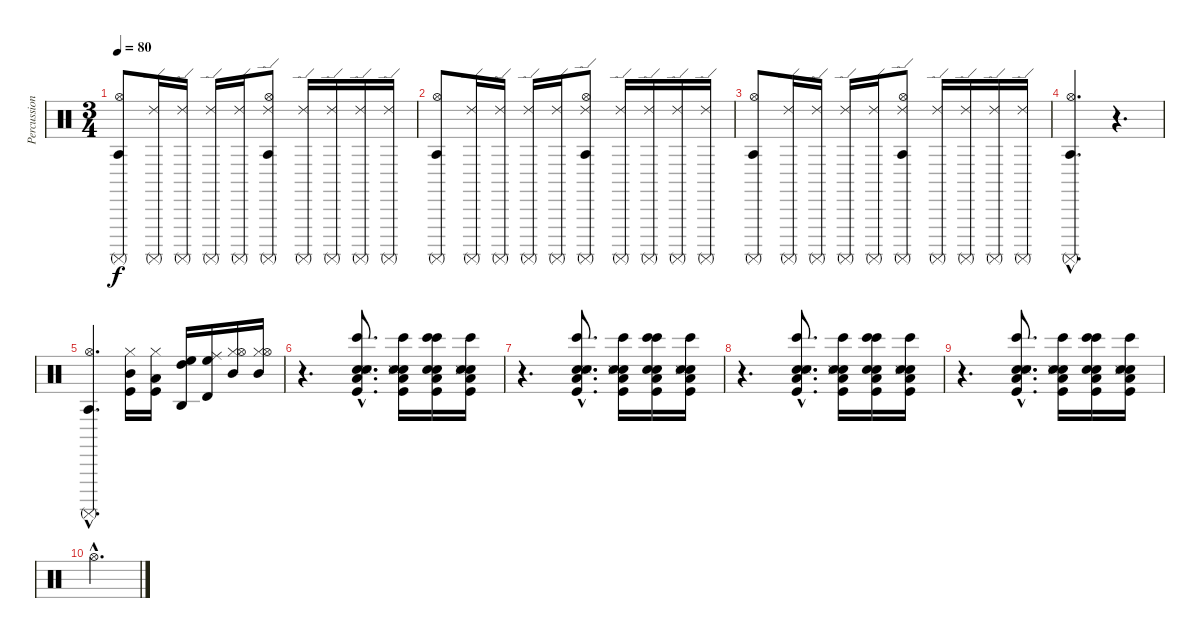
\track ("Percussion" "Percussion") {instrument percussion}
\staff {score}
\articulation defaults
\ts (3 4)
\tempo 80
\clef neutral
\ks c
("Surdo (mute)" "Hi-Hat (open)" "Agogo tow (hit)").8{dy f} ("Surdo (mute)" "Ride (edge) 2").16 ("Surdo (mute)" "Ride (edge) 2").16 ("Surdo (mute)" "Ride (edge) 2").16 ("Surdo (mute)" "Ride (edge) 2").16 ("Surdo (mute)" "Hi-Hat (open)" "Agogo tow (hit)" "Ride (edge) 2").8 ("Surdo (mute)" "Ride (edge) 2").16 ("Surdo (mute)" "Ride (edge) 2").16 ("Surdo (mute)" "Ride (edge) 2").16 ("Surdo (mute)" "Ride (edge) 2").16 |
("Surdo (mute)" "Hi-Hat (open)" "Agogo tow (hit)").8 ("Surdo (mute)" "Ride (edge) 2").16 ("Surdo (mute)" "Ride (edge) 2").16 ("Surdo (mute)" "Ride (edge) 2").16 ("Surdo (mute)" "Ride (edge) 2").16 ("Surdo (mute)" "Hi-Hat (open)" "Agogo tow (hit)" "Ride (edge) 2").8 ("Surdo (mute)" "Ride (edge) 2").16 ("Surdo (mute)" "Ride (edge) 2").16 ("Surdo (mute)" "Ride (edge) 2").16 ("Surdo (mute)" "Ride (edge) 2").16 |
("Surdo (mute)" "Hi-Hat (open)" "Agogo tow (hit)").8 ("Surdo (mute)" "Ride (edge) 2").16 ("Surdo (mute)" "Ride (edge) 2").16 ("Surdo (mute)" "Ride (edge) 2").16 ("Surdo (mute)" "Ride (edge) 2").16 ("Surdo (mute)" "Hi-Hat (open)" "Agogo tow (hit)" "Ride (edge) 2").8 ("Surdo (mute)" "Ride (edge) 2").16 ("Surdo (mute)" "Ride (edge) 2").16 ("Surdo (mute)" "Ride (edge) 2").16 ("Surdo (mute)" "Ride (edge) 2").16 |
("Surdo (mute)"{hac} "Hi-Hat (open)"{hac} "Agogo tow (hit)"{hac}).4{d} r.4{d} |
("Surdo (mute)"{hac} "Hi-Hat (open)"{hac} "Agogo tow (hit)"{hac}).4{d} ("Hi-Hat (closed)" "Kick (hit)" "Mid Tom (hit)").16 ("Low Tom (hit)" "Kick (hit)" "Hi-Hat (closed)").16 ("Agogo high (hit)" "High Tom (hit)" "High Floor Tom (hit)").16 ("Timbale high (hit)" "Ride (middle)" "High Floor Tom (hit)").16 ("Hi-Hat (closed)" "Hi-Hat (open)" "Mid Tom (hit)").16 ("Hi-Hat (closed)" "Hi-Hat (open)" "Mid Tom (hit)").16 |
r.4{d} ("Low Tom (hit)"{hac} "Electric Snare (hit)"{hac} "Bongo High (hit)"{hac} "Kick (hit)"{hac} "Electric Snare (hit)"{hac} "Snare (side stick) 3"{hac}).8{d} ("Low Tom (hit)" "Electric Snare (hit)" "Bongo High (hit)" "Kick (hit)" "Electric Snare (hit)" "Snare (side stick) 3").16 ("Low Tom (hit)" "Electric Snare (hit)" "Bongo High (hit)" "Kick (hit)" "Electric Snare (hit)" "Bongo High (hit)").16 ("Low Tom (hit)" "Electric Snare (hit)" "Bongo High (hit)" "Kick (hit)" "Electric Snare (hit)" "Snare (side stick) 3").16 |
r.4{d} ("Low Tom (hit)"{hac} "Electric Snare (hit)"{hac} "Bongo High (hit)"{hac} "Kick (hit)"{hac} "Electric Snare (hit)"{hac} "Snare (side stick) 3"{hac}).8{d} ("Low Tom (hit)" "Electric Snare (hit)" "Bongo High (hit)" "Kick (hit)" "Electric Snare (hit)" "Snare (side stick) 3").16 ("Low Tom (hit)" "Electric Snare (hit)" "Bongo High (hit)" "Kick (hit)" "Electric Snare (hit)" "Bongo High (hit)").16 ("Low Tom (hit)" "Electric Snare (hit)" "Bongo High (hit)" "Kick (hit)" "Electric Snare (hit)" "Snare (side stick) 3").16 |
r.4{d} ("Low Tom (hit)"{hac} "Electric Snare (hit)"{hac} "Bongo High (hit)"{hac} "Kick (hit)"{hac} "Electric Snare (hit)"{hac} "Snare (side stick) 3"{hac}).8{d} ("Low Tom (hit)" "Electric Snare (hit)" "Bongo High (hit)" "Kick (hit)" "Electric Snare (hit)" "Snare (side stick) 3").16 ("Low Tom (hit)" "Electric Snare (hit)" "Bongo High (hit)" "Kick (hit)" "Electric Snare (hit)" "Bongo High (hit)").16 ("Low Tom (hit)" "Electric Snare (hit)" "Bongo High (hit)" "Kick (hit)" "Electric Snare (hit)" "Snare (side stick) 3").16 |
r.4{d} ("Low Tom (hit)"{hac} "Electric Snare (hit)"{hac} "Bongo High (hit)"{hac} "Kick (hit)"{hac} "Electric Snare (hit)"{hac} "Snare (side stick) 3"{hac}).8{d} ("Low Tom (hit)" "Electric Snare (hit)" "Bongo High (hit)" "Kick (hit)" "Electric Snare (hit)" "Snare (side stick) 3").16 ("Low Tom (hit)" "Electric Snare (hit)" "Bongo High (hit)" "Kick (hit)" "Electric Snare (hit)" "Bongo High (hit)").16 ("Low Tom (hit)" "Electric Snare (hit)" "Bongo High (hit)" "Kick (hit)" "Electric Snare (hit)" "Snare (side stick) 3").16 |
"Hi-Hat (open)"{hac}.2{d}
